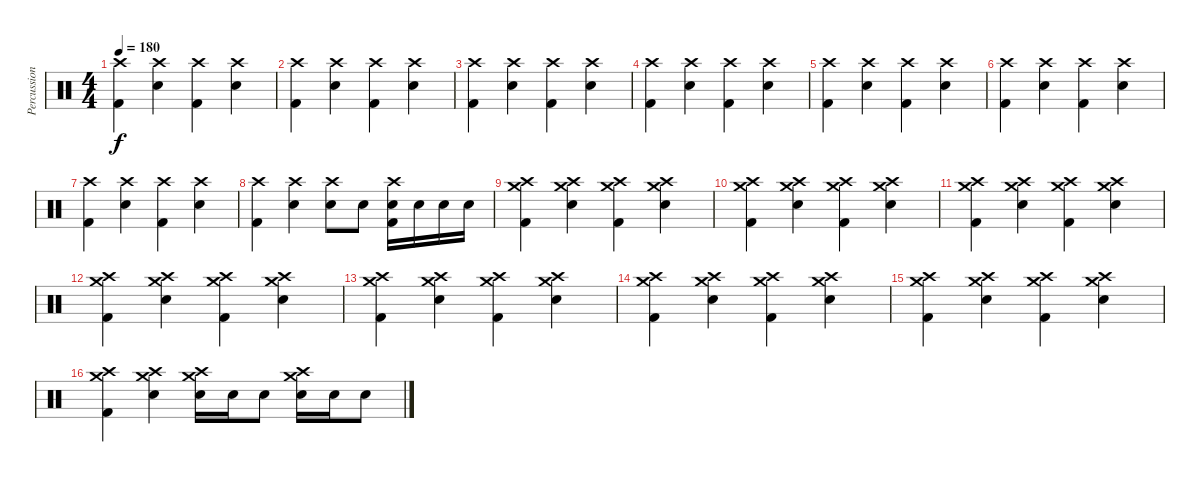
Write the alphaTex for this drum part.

\track ("Percussions" "Percussion") {instrument percussion}
\staff {score}
\articulation defaults
\ts (4 4)
\tempo 180
\clef neutral
\ks c
("Crash high (hit)" "Kick (hit) 2").4{dy f} ("Crash high (hit)" "Snare (hit) 2").4 ("Crash high (hit)" "Kick (hit) 2").4 ("Crash high (hit)" "Snare (hit) 2").4 |
("Crash high (hit)" "Kick (hit) 2").4 ("Crash high (hit)" "Snare (hit) 2").4 ("Crash high (hit)" "Kick (hit) 2").4 ("Crash high (hit)" "Snare (hit) 2").4 |
("Crash high (hit)" "Kick (hit) 2").4 ("Crash high (hit)" "Snare (hit) 2").4 ("Crash high (hit)" "Kick (hit) 2").4 ("Crash high (hit)" "Snare (hit) 2").4 |
("Crash high (hit)" "Kick (hit) 2").4 ("Crash high (hit)" "Snare (hit) 2").4 ("Crash high (hit)" "Kick (hit) 2").4 ("Crash high (hit)" "Snare (hit) 2").4 |
("Crash high (hit)" "Kick (hit) 2").4 ("Crash high (hit)" "Snare (hit) 2").4 ("Crash high (hit)" "Kick (hit) 2").4 ("Crash high (hit)" "Snare (hit) 2").4 |
("Crash high (hit)" "Kick (hit) 2").4 ("Crash high (hit)" "Snare (hit) 2").4 ("Crash high (hit)" "Kick (hit) 2").4 ("Crash high (hit)" "Snare (hit) 2").4 |
("Crash high (hit)" "Kick (hit) 2").4 ("Crash high (hit)" "Snare (hit) 2").4 ("Crash high (hit)" "Kick (hit) 2").4 ("Crash high (hit)" "Snare (hit) 2").4 |
("Crash high (hit)" "Kick (hit) 2").4 ("Crash high (hit)" "Snare (hit) 2").4 ("Crash high (hit)" "Snare (hit) 2").8 "Snare (hit) 2".8 ("Crash high (hit)" "Kick (hit) 2" "Snare (hit) 2").16 "Snare (hit) 2".16 "Snare (hit) 2".16 "Snare (hit) 2".16 |
("Crash high (hit)" "Crash medium (hit)" "Kick (hit) 2").4 ("Crash high (hit)" "Crash medium (hit)" "Snare (hit) 2").4 ("Crash high (hit)" "Crash medium (hit)" "Kick (hit) 2").4 ("Crash high (hit)" "Crash medium (hit)" "Snare (hit) 2").4 |
("Crash high (hit)" "Crash medium (hit)" "Kick (hit) 2").4 ("Crash high (hit)" "Crash medium (hit)" "Snare (hit) 2").4 ("Crash high (hit)" "Crash medium (hit)" "Kick (hit) 2").4 ("Crash high (hit)" "Crash medium (hit)" "Snare (hit) 2").4 |
("Crash high (hit)" "Crash medium (hit)" "Kick (hit) 2").4 ("Crash high (hit)" "Crash medium (hit)" "Snare (hit) 2").4 ("Crash high (hit)" "Crash medium (hit)" "Kick (hit) 2").4 ("Crash high (hit)" "Crash medium (hit)" "Snare (hit) 2").4 |
("Crash high (hit)" "Crash medium (hit)" "Kick (hit) 2").4 ("Crash high (hit)" "Crash medium (hit)" "Snare (hit) 2").4 ("Crash high (hit)" "Crash medium (hit)" "Kick (hit) 2").4 ("Crash high (hit)" "Crash medium (hit)" "Snare (hit) 2").4 |
("Crash high (hit)" "Crash medium (hit)" "Kick (hit) 2").4 ("Crash high (hit)" "Crash medium (hit)" "Snare (hit) 2").4 ("Crash high (hit)" "Crash medium (hit)" "Kick (hit) 2").4 ("Crash high (hit)" "Crash medium (hit)" "Snare (hit) 2").4 |
("Crash high (hit)" "Crash medium (hit)" "Kick (hit) 2").4 ("Crash high (hit)" "Crash medium (hit)" "Snare (hit) 2").4 ("Crash high (hit)" "Crash medium (hit)" "Kick (hit) 2").4 ("Crash high (hit)" "Crash medium (hit)" "Snare (hit) 2").4 |
("Crash high (hit)" "Crash medium (hit)" "Kick (hit) 2").4 ("Crash high (hit)" "Crash medium (hit)" "Snare (hit) 2").4 ("Crash high (hit)" "Crash medium (hit)" "Kick (hit) 2").4 ("Crash high (hit)" "Crash medium (hit)" "Snare (hit) 2").4 |
("Crash high (hit)" "Crash medium (hit)" "Kick (hit) 2").4 ("Crash high (hit)" "Crash medium (hit)" "Snare (hit) 2").4 ("Crash high (hit)" "Crash medium (hit)" "Snare (hit) 2").16 "Snare (hit) 2".16 "Snare (hit) 2".8 ("Crash high (hit)" "Crash medium (hit)" "Snare (hit) 2").16 "Snare (hit) 2".16 "Snare (hit) 2".8
